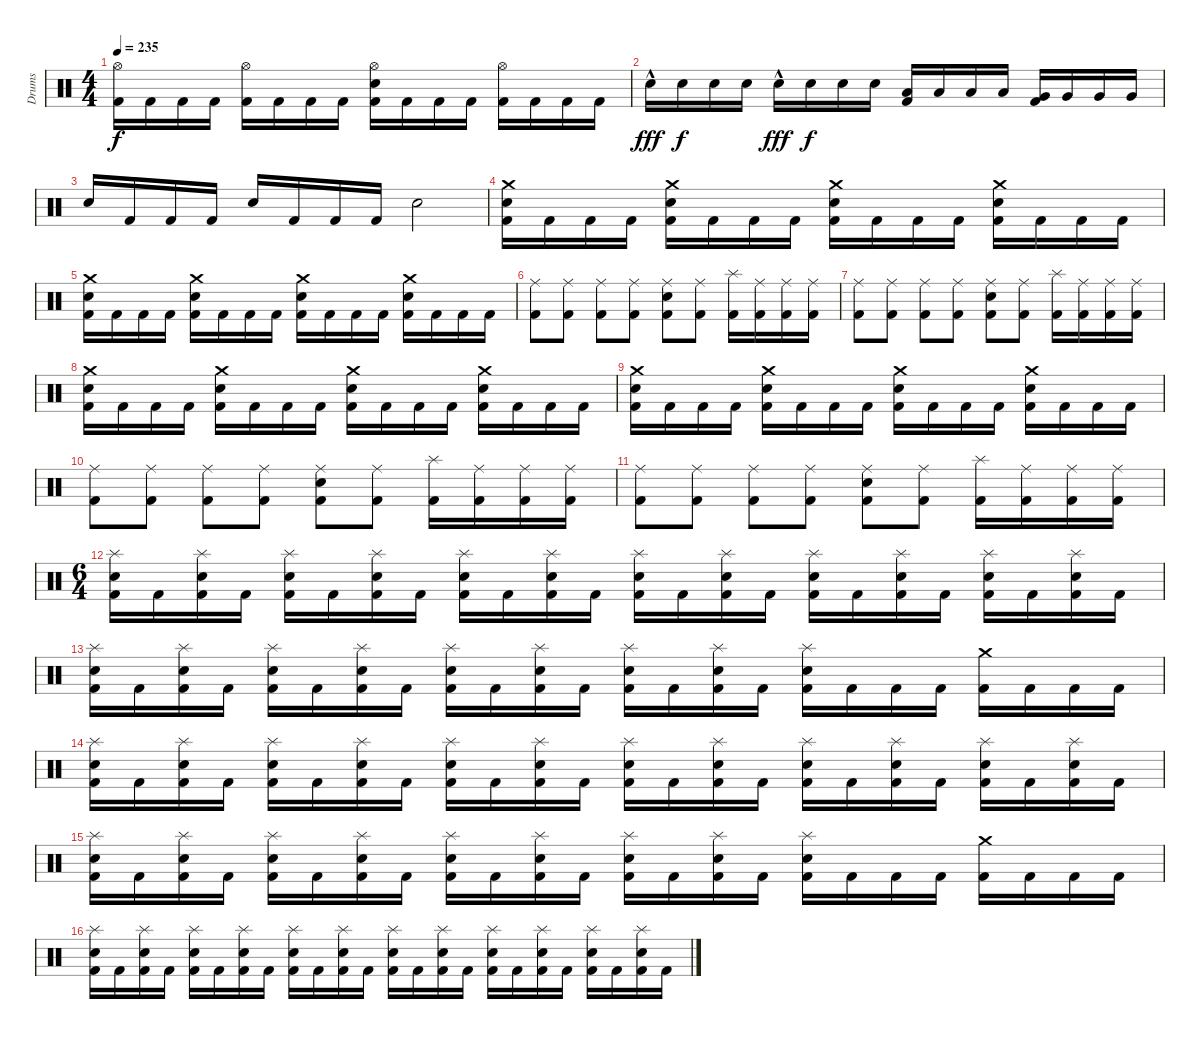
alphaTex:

\track ("Drums" "Drums") {instrument percussion}
\staff {score}
\articulation defaults
\ts (4 4)
\tempo 235
\clef neutral
\ks c
("Hi-Hat (open)" "Kick (hit) 2").16{dy f} "Kick (hit) 2".16 "Kick (hit) 2".16 "Kick (hit) 2".16 ("Hi-Hat (open)" "Kick (hit) 2").16 "Kick (hit) 2".16 "Kick (hit) 2".16 "Kick (hit) 2".16 ("Hi-Hat (open)" "Electric Snare (hit)" "Kick (hit) 2").16 "Kick (hit) 2".16 "Kick (hit) 2".16 "Kick (hit) 2".16 ("Hi-Hat (open)" "Kick (hit) 2").16 "Kick (hit) 2".16 "Kick (hit) 2".16 "Kick (hit) 2".16 |
"Electric Snare (hit)"{hac}.16{dy fff} "Electric Snare (hit)".16{dy f} "Electric Snare (hit)".16 "Electric Snare (hit)".16 "Electric Snare (hit)"{hac}.16{dy fff} "Electric Snare (hit)".16{dy f} "Electric Snare (hit)".16 "Electric Snare (hit)".16 ("Low Tom (hit)" "Kick (hit) 2").16 "Low Tom (hit)".16 "Low Tom (hit)".16 "Low Tom (hit)".16 ("Very Low Tom (hit)" "Kick (hit) 2").16 "Very Low Tom (hit)".16 "Very Low Tom (hit)".16 "Very Low Tom (hit)".16 |
"Electric Snare (hit)".16 "Kick (hit) 2".16 "Kick (hit) 2".16 "Kick (hit) 2".16 "Electric Snare (hit)".16 "Kick (hit) 2".16 "Kick (hit) 2".16 "Kick (hit) 2".16 "Electric Snare (hit)".2 |
("Crash medium (hit)" "Electric Snare (hit)" "Kick (hit) 2").16 "Kick (hit) 2".16 "Kick (hit) 2".16 "Kick (hit) 2".16 ("Crash medium (hit)" "Electric Snare (hit)" "Kick (hit) 2").16 "Kick (hit) 2".16 "Kick (hit) 2".16 "Kick (hit) 2".16 ("Crash medium (hit)" "Electric Snare (hit)" "Kick (hit) 2").16 "Kick (hit) 2".16 "Kick (hit) 2".16 "Kick (hit) 2".16 ("Crash medium (hit)" "Electric Snare (hit)" "Kick (hit) 2").16 "Kick (hit) 2".16 "Kick (hit) 2".16 "Kick (hit) 2".16 |
("Crash medium (hit)" "Electric Snare (hit)" "Kick (hit) 2").16 "Kick (hit) 2".16 "Kick (hit) 2".16 "Kick (hit) 2".16 ("Crash medium (hit)" "Electric Snare (hit)" "Kick (hit) 2").16 "Kick (hit) 2".16 "Kick (hit) 2".16 "Kick (hit) 2".16 ("Crash medium (hit)" "Electric Snare (hit)" "Kick (hit) 2").16 "Kick (hit) 2".16 "Kick (hit) 2".16 "Kick (hit) 2".16 ("Crash medium (hit)" "Electric Snare (hit)" "Kick (hit) 2").16 "Kick (hit) 2".16 "Kick (hit) 2".16 "Kick (hit) 2".16 |
("Ride (middle)" "Kick (hit) 2").8 ("Ride (middle)" "Kick (hit) 2").8 ("Ride (middle)" "Kick (hit) 2").8 ("Ride (middle)" "Kick (hit) 2").8 ("Ride (middle)" "Electric Snare (hit)" "Kick (hit) 2").8 ("Ride (middle)" "Kick (hit) 2").8 ("Splash (hit)" "Kick (hit) 2").16 ("Ride (middle)" "Kick (hit) 2").16 ("Ride (middle)" "Kick (hit) 2").16 ("Ride (middle)" "Kick (hit) 2").16 |
("Ride (middle)" "Kick (hit) 2").8 ("Ride (middle)" "Kick (hit) 2").8 ("Ride (middle)" "Kick (hit) 2").8 ("Ride (middle)" "Kick (hit) 2").8 ("Ride (middle)" "Electric Snare (hit)" "Kick (hit) 2").8 ("Ride (middle)" "Kick (hit) 2").8 ("Splash (hit)" "Kick (hit) 2").16 ("Ride (middle)" "Kick (hit) 2").16 ("Ride (middle)" "Kick (hit) 2").16 ("Ride (middle)" "Kick (hit) 2").16 |
("Crash medium (hit)" "Electric Snare (hit)" "Kick (hit) 2").16 "Kick (hit) 2".16 "Kick (hit) 2".16 "Kick (hit) 2".16 ("Crash medium (hit)" "Electric Snare (hit)" "Kick (hit) 2").16 "Kick (hit) 2".16 "Kick (hit) 2".16 "Kick (hit) 2".16 ("Crash medium (hit)" "Electric Snare (hit)" "Kick (hit) 2").16 "Kick (hit) 2".16 "Kick (hit) 2".16 "Kick (hit) 2".16 ("Crash medium (hit)" "Electric Snare (hit)" "Kick (hit) 2").16 "Kick (hit) 2".16 "Kick (hit) 2".16 "Kick (hit) 2".16 |
("Crash medium (hit)" "Electric Snare (hit)" "Kick (hit) 2").16 "Kick (hit) 2".16 "Kick (hit) 2".16 "Kick (hit) 2".16 ("Crash medium (hit)" "Electric Snare (hit)" "Kick (hit) 2").16 "Kick (hit) 2".16 "Kick (hit) 2".16 "Kick (hit) 2".16 ("Crash medium (hit)" "Electric Snare (hit)" "Kick (hit) 2").16 "Kick (hit) 2".16 "Kick (hit) 2".16 "Kick (hit) 2".16 ("Crash medium (hit)" "Electric Snare (hit)" "Kick (hit) 2").16 "Kick (hit) 2".16 "Kick (hit) 2".16 "Kick (hit) 2".16 |
("Ride (middle)" "Kick (hit) 2").8 ("Ride (middle)" "Kick (hit) 2").8 ("Ride (middle)" "Kick (hit) 2").8 ("Ride (middle)" "Kick (hit) 2").8 ("Ride (middle)" "Electric Snare (hit)" "Kick (hit) 2").8 ("Ride (middle)" "Kick (hit) 2").8 ("Splash (hit)" "Kick (hit) 2").16 ("Ride (middle)" "Kick (hit) 2").16 ("Ride (middle)" "Kick (hit) 2").16 ("Ride (middle)" "Kick (hit) 2").16 |
("Ride (middle)" "Kick (hit) 2").8 ("Ride (middle)" "Kick (hit) 2").8 ("Ride (middle)" "Kick (hit) 2").8 ("Ride (middle)" "Kick (hit) 2").8 ("Ride (middle)" "Electric Snare (hit)" "Kick (hit) 2").8 ("Ride (middle)" "Kick (hit) 2").8 ("Splash (hit)" "Kick (hit) 2").16 ("Ride (middle)" "Kick (hit) 2").16 ("Ride (middle)" "Kick (hit) 2").16 ("Ride (middle)" "Kick (hit) 2").16 |
\ts (6 4)
("Splash (hit)" "Electric Snare (hit)" "Kick (hit) 2").16 "Kick (hit) 2".16 ("Splash (hit)" "Electric Snare (hit)" "Kick (hit) 2").16 "Kick (hit) 2".16 ("Splash (hit)" "Electric Snare (hit)" "Kick (hit) 2").16 "Kick (hit) 2".16 ("Splash (hit)" "Electric Snare (hit)" "Kick (hit) 2").16 "Kick (hit) 2".16 ("Splash (hit)" "Electric Snare (hit)" "Kick (hit) 2").16 "Kick (hit) 2".16 ("Splash (hit)" "Electric Snare (hit)" "Kick (hit) 2").16 "Kick (hit) 2".16 ("Splash (hit)" "Electric Snare (hit)" "Kick (hit) 2").16 "Kick (hit) 2".16 ("Splash (hit)" "Electric Snare (hit)" "Kick (hit) 2").16 "Kick (hit) 2".16 ("Splash (hit)" "Electric Snare (hit)" "Kick (hit) 2").16 "Kick (hit) 2".16 ("Splash (hit)" "Electric Snare (hit)" "Kick (hit) 2").16 "Kick (hit) 2".16 ("Splash (hit)" "Electric Snare (hit)" "Kick (hit) 2").16 "Kick (hit) 2".16 ("Splash (hit)" "Electric Snare (hit)" "Kick (hit) 2").16 "Kick (hit) 2".16 |
("Splash (hit)" "Electric Snare (hit)" "Kick (hit) 2").16 "Kick (hit) 2".16 ("Splash (hit)" "Electric Snare (hit)" "Kick (hit) 2").16 "Kick (hit) 2".16 ("Splash (hit)" "Electric Snare (hit)" "Kick (hit) 2").16 "Kick (hit) 2".16 ("Splash (hit)" "Electric Snare (hit)" "Kick (hit) 2").16 "Kick (hit) 2".16 ("Splash (hit)" "Electric Snare (hit)" "Kick (hit) 2").16 "Kick (hit) 2".16 ("Splash (hit)" "Electric Snare (hit)" "Kick (hit) 2").16 "Kick (hit) 2".16 ("Splash (hit)" "Electric Snare (hit)" "Kick (hit) 2").16 "Kick (hit) 2".16 ("Splash (hit)" "Electric Snare (hit)" "Kick (hit) 2").16 "Kick (hit) 2".16 ("Splash (hit)" "Electric Snare (hit)" "Kick (hit) 2").16 "Kick (hit) 2".16 "Kick (hit) 2".16 "Kick (hit) 2".16 ("Crash medium (hit)" "Kick (hit) 2").16 "Kick (hit) 2".16 "Kick (hit) 2".16 "Kick (hit) 2".16 |
("Splash (hit)" "Electric Snare (hit)" "Kick (hit) 2").16 "Kick (hit) 2".16 ("Splash (hit)" "Electric Snare (hit)" "Kick (hit) 2").16 "Kick (hit) 2".16 ("Splash (hit)" "Electric Snare (hit)" "Kick (hit) 2").16 "Kick (hit) 2".16 ("Splash (hit)" "Electric Snare (hit)" "Kick (hit) 2").16 "Kick (hit) 2".16 ("Splash (hit)" "Electric Snare (hit)" "Kick (hit) 2").16 "Kick (hit) 2".16 ("Splash (hit)" "Electric Snare (hit)" "Kick (hit) 2").16 "Kick (hit) 2".16 ("Splash (hit)" "Electric Snare (hit)" "Kick (hit) 2").16 "Kick (hit) 2".16 ("Splash (hit)" "Electric Snare (hit)" "Kick (hit) 2").16 "Kick (hit) 2".16 ("Splash (hit)" "Electric Snare (hit)" "Kick (hit) 2").16 "Kick (hit) 2".16 ("Splash (hit)" "Electric Snare (hit)" "Kick (hit) 2").16 "Kick (hit) 2".16 ("Splash (hit)" "Electric Snare (hit)" "Kick (hit) 2").16 "Kick (hit) 2".16 ("Splash (hit)" "Electric Snare (hit)" "Kick (hit) 2").16 "Kick (hit) 2".16 |
("Splash (hit)" "Electric Snare (hit)" "Kick (hit) 2").16 "Kick (hit) 2".16 ("Splash (hit)" "Electric Snare (hit)" "Kick (hit) 2").16 "Kick (hit) 2".16 ("Splash (hit)" "Electric Snare (hit)" "Kick (hit) 2").16 "Kick (hit) 2".16 ("Splash (hit)" "Electric Snare (hit)" "Kick (hit) 2").16 "Kick (hit) 2".16 ("Splash (hit)" "Electric Snare (hit)" "Kick (hit) 2").16 "Kick (hit) 2".16 ("Splash (hit)" "Electric Snare (hit)" "Kick (hit) 2").16 "Kick (hit) 2".16 ("Splash (hit)" "Electric Snare (hit)" "Kick (hit) 2").16 "Kick (hit) 2".16 ("Splash (hit)" "Electric Snare (hit)" "Kick (hit) 2").16 "Kick (hit) 2".16 ("Splash (hit)" "Electric Snare (hit)" "Kick (hit) 2").16 "Kick (hit) 2".16 "Kick (hit) 2".16 "Kick (hit) 2".16 ("Crash medium (hit)" "Kick (hit) 2").16 "Kick (hit) 2".16 "Kick (hit) 2".16 "Kick (hit) 2".16 |
("Splash (hit)" "Electric Snare (hit)" "Kick (hit) 2").16 "Kick (hit) 2".16 ("Splash (hit)" "Electric Snare (hit)" "Kick (hit) 2").16 "Kick (hit) 2".16 ("Splash (hit)" "Electric Snare (hit)" "Kick (hit) 2").16 "Kick (hit) 2".16 ("Splash (hit)" "Electric Snare (hit)" "Kick (hit) 2").16 "Kick (hit) 2".16 ("Splash (hit)" "Electric Snare (hit)" "Kick (hit) 2").16 "Kick (hit) 2".16 ("Splash (hit)" "Electric Snare (hit)" "Kick (hit) 2").16 "Kick (hit) 2".16 ("Splash (hit)" "Electric Snare (hit)" "Kick (hit) 2").16 "Kick (hit) 2".16 ("Splash (hit)" "Electric Snare (hit)" "Kick (hit) 2").16 "Kick (hit) 2".16 ("Splash (hit)" "Electric Snare (hit)" "Kick (hit) 2").16 "Kick (hit) 2".16 ("Splash (hit)" "Electric Snare (hit)" "Kick (hit) 2").16 "Kick (hit) 2".16 ("Splash (hit)" "Electric Snare (hit)" "Kick (hit) 2").16 "Kick (hit) 2".16 ("Splash (hit)" "Electric Snare (hit)" "Kick (hit) 2").16 "Kick (hit) 2".16
